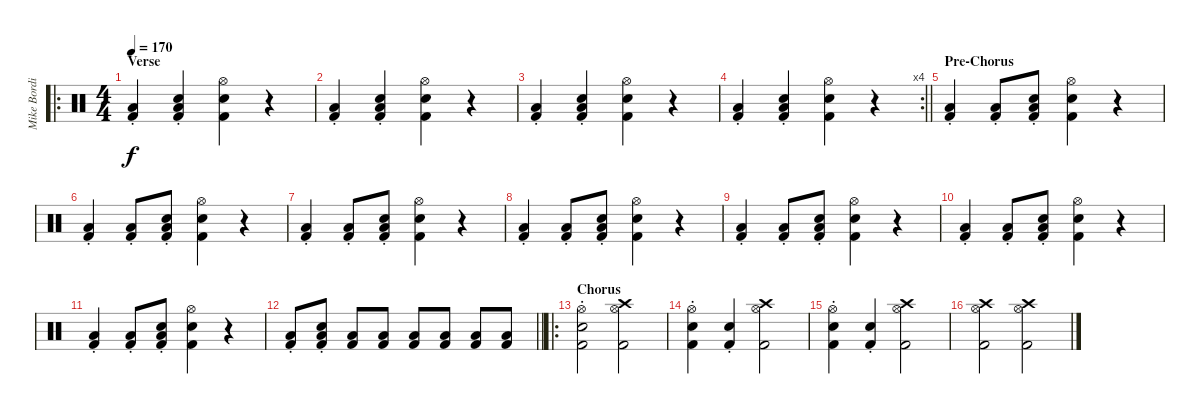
\track ("Mike Bordin" "Mike Bordi") {instrument percussion}
\staff {score}
\articulation defaults
\ro
\ts (4 4)
\section ("" "Verse")
\tempo 170
\clef neutral
\ks c
("Kick (hit) 2"{st} "Low Floor Tom (hit)").4{dy f volume 14} ("Snare (hit) 2" "Kick (hit) 2"{st} "Low Floor Tom (hit)").4 ("Hi-Hat (open)" "Snare (hit) 2" "Kick (hit) 2").4 r.4 |
("Kick (hit) 2"{st} "Low Floor Tom (hit)").4 ("Snare (hit) 2" "Kick (hit) 2"{st} "Low Floor Tom (hit)").4 ("Hi-Hat (open)" "Snare (hit) 2" "Kick (hit) 2").4 r.4 |
("Kick (hit) 2"{st} "Low Floor Tom (hit)").4 ("Snare (hit) 2" "Kick (hit) 2"{st} "Low Floor Tom (hit)").4 ("Hi-Hat (open)" "Snare (hit) 2" "Kick (hit) 2").4 r.4 |
\rc 4
\barLineRight lightlight
("Kick (hit) 2"{st} "Low Floor Tom (hit)").4 ("Snare (hit) 2" "Kick (hit) 2"{st} "Low Floor Tom (hit)").4 ("Hi-Hat (open)" "Snare (hit) 2" "Kick (hit) 2").4 r.4 |
\section ("" "Pre-Chorus")
("Kick (hit) 2"{st} "Low Floor Tom (hit)").4{volume 14} ("Kick (hit) 2"{st} "Low Floor Tom (hit)").8{volume 14} ("Snare (hit) 2" "Kick (hit) 2"{st} "Low Floor Tom (hit)").8 ("Hi-Hat (open)" "Snare (hit) 2" "Kick (hit) 2").4 r.4 |
("Kick (hit) 2"{st} "Low Floor Tom (hit)").4{volume 14} ("Kick (hit) 2"{st} "Low Floor Tom (hit)").8{volume 14} ("Snare (hit) 2" "Kick (hit) 2"{st} "Low Floor Tom (hit)").8 ("Hi-Hat (open)" "Snare (hit) 2" "Kick (hit) 2").4 r.4 |
("Kick (hit) 2"{st} "Low Floor Tom (hit)").4{volume 14} ("Kick (hit) 2"{st} "Low Floor Tom (hit)").8{volume 14} ("Snare (hit) 2" "Kick (hit) 2"{st} "Low Floor Tom (hit)").8 ("Hi-Hat (open)" "Snare (hit) 2" "Kick (hit) 2").4 r.4 |
("Kick (hit) 2"{st} "Low Floor Tom (hit)").4{volume 14} ("Kick (hit) 2"{st} "Low Floor Tom (hit)").8{volume 14} ("Snare (hit) 2" "Kick (hit) 2"{st} "Low Floor Tom (hit)").8 ("Hi-Hat (open)" "Snare (hit) 2" "Kick (hit) 2").4 r.4 |
("Kick (hit) 2"{st} "Low Floor Tom (hit)").4{volume 14} ("Kick (hit) 2"{st} "Low Floor Tom (hit)").8{volume 14} ("Snare (hit) 2" "Kick (hit) 2"{st} "Low Floor Tom (hit)").8 ("Hi-Hat (open)" "Snare (hit) 2" "Kick (hit) 2").4 r.4 |
("Kick (hit) 2"{st} "Low Floor Tom (hit)").4{volume 14} ("Kick (hit) 2"{st} "Low Floor Tom (hit)").8{volume 14} ("Snare (hit) 2" "Kick (hit) 2"{st} "Low Floor Tom (hit)").8 ("Hi-Hat (open)" "Snare (hit) 2" "Kick (hit) 2").4 r.4 |
("Kick (hit) 2"{st} "Low Floor Tom (hit)").4{volume 14} ("Kick (hit) 2"{st} "Low Floor Tom (hit)").8{volume 14} ("Snare (hit) 2" "Kick (hit) 2"{st} "Low Floor Tom (hit)").8 ("Hi-Hat (open)" "Snare (hit) 2" "Kick (hit) 2").4 r.4 |
\barLineRight lightlight
("Kick (hit) 2"{st} "Low Floor Tom (hit)").8{volume 14} ("Snare (hit) 2" "Kick (hit) 2"{st} "Low Floor Tom (hit)").8 ("Kick (hit) 2" "Low Floor Tom (hit)").8 ("Kick (hit) 2" "Low Floor Tom (hit)").8 ("Kick (hit) 2" "Low Floor Tom (hit)").8 ("Kick (hit) 2" "Low Floor Tom (hit)").8 ("Kick (hit) 2" "Low Floor Tom (hit)").8 ("Kick (hit) 2" "Low Floor Tom (hit)").8 |
\ro
\section ("" "Chorus")
("Hi-Hat (open)" "Snare (hit) 2" "Kick (hit) 2"{st}).2{volume 16} ("Hi-Hat (open)" "Crash high (hit)" "Kick (hit) 2").2 |
("Hi-Hat (open)" "Snare (hit) 2" "Kick (hit) 2"{st}).4 ("Snare (hit) 2" "Kick (hit) 2"{st}).4 ("Hi-Hat (open)" "Crash high (hit)" "Kick (hit) 2").2 |
("Hi-Hat (open)" "Snare (hit) 2" "Kick (hit) 2"{st}).4 ("Snare (hit) 2" "Kick (hit) 2"{st}).4 ("Hi-Hat (open)" "Crash high (hit)" "Kick (hit) 2").2 |
("Hi-Hat (open)" "Crash high (hit)" "Kick (hit) 2").2 ("Hi-Hat (open)" "Crash high (hit)" "Kick (hit) 2").2
